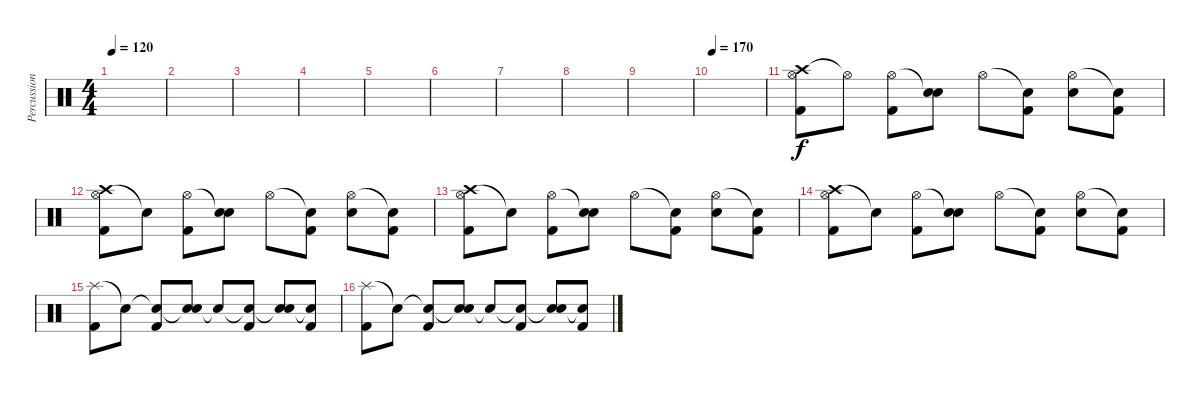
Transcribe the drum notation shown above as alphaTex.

\track ("Percussion" "Percussion") {instrument percussion}
\staff {score}
\articulation defaults
\ts (4 4)
\tempo 120
\clef neutral
\ks c
|
|
|
|
|
|
|
|
|
\tempo 170
|
("Crash high (hit)" "Hi-Hat (open)" "Kick (hit) 2").8 "Hi-Hat (open)"{t}.8 ("Hi-Hat (open)" "Kick (hit) 2").8 ("Snare (hit)"{t} "Electric Snare (hit)").8 "Hi-Hat (open)".8 ("Snare (hit)"{t} "Kick (hit) 2").8 ("Hi-Hat (open)" "Electric Snare (hit)").8 ("Snare (hit)"{t} "Kick (hit) 2").8 |
("Crash high (hit)" "Hi-Hat (open)" "Kick (hit) 2").8 "Snare (hit)"{t}.8 ("Hi-Hat (open)" "Kick (hit) 2").8 ("Snare (hit)"{t} "Electric Snare (hit)").8 "Hi-Hat (open)".8 ("Snare (hit)"{t} "Kick (hit) 2").8 ("Hi-Hat (open)" "Electric Snare (hit)").8 ("Snare (hit)"{t} "Kick (hit) 2").8 |
("Crash high (hit)" "Hi-Hat (open)" "Kick (hit) 2").8 "Snare (hit)"{t}.8 ("Hi-Hat (open)" "Kick (hit) 2").8 ("Snare (hit)"{t} "Electric Snare (hit)").8 "Hi-Hat (open)".8 ("Snare (hit)"{t} "Kick (hit) 2").8 ("Hi-Hat (open)" "Electric Snare (hit)").8 ("Snare (hit)"{t} "Kick (hit) 2").8 |
("Crash high (hit)" "Hi-Hat (open)" "Kick (hit) 2").8 "Snare (hit)"{t}.8 ("Hi-Hat (open)" "Kick (hit) 2").8 ("Snare (hit)"{t} "Electric Snare (hit)").8 "Hi-Hat (open)".8 ("Snare (hit)"{t} "Kick (hit) 2").8 ("Hi-Hat (open)" "Electric Snare (hit)").8 ("Snare (hit)"{t} "Kick (hit) 2").8 |
("Splash (hit)" "Kick (hit) 2").8 "Snare (hit)"{t}.8 ("Snare (hit)"{t} "Kick (hit) 2").8 ("Snare (hit)"{t} "Electric Snare (hit)").8 "Snare (hit)"{t}.8 ("Snare (hit)"{t} "Kick (hit) 2").8 ("Snare (hit)"{t} "Electric Snare (hit)").8 ("Snare (hit)"{t} "Kick (hit) 2").8 |
("Splash (hit)" "Kick (hit) 2").8 "Snare (hit)"{t}.8 ("Snare (hit)"{t} "Kick (hit) 2").8 ("Snare (hit)"{t} "Electric Snare (hit)").8 "Snare (hit)"{t}.8 ("Snare (hit)"{t} "Kick (hit) 2").8 ("Snare (hit)"{t} "Electric Snare (hit)").8 ("Snare (hit)"{t} "Kick (hit) 2").8
